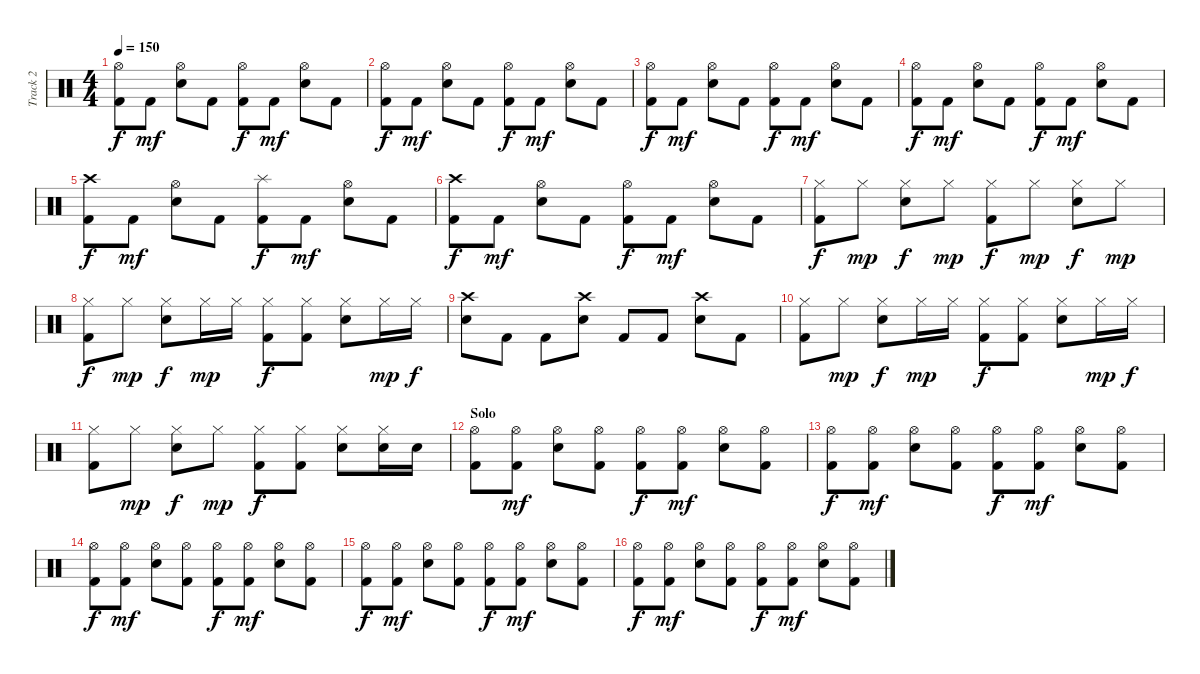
\track ("Track 2" "Track 2") {instrument percussion}
\staff {score}
\articulation defaults
\ts (4 4)
\tempo 150
\clef neutral
\ks c
("Hi-Hat (open)" "Kick (hit) 2").8{dy f} "Kick (hit) 2".8{dy mf} ("Hi-Hat (open)" "Electric Snare (hit)").8 "Kick (hit) 2".8 ("Hi-Hat (open)" "Kick (hit) 2").8{dy f} "Kick (hit) 2".8{dy mf} ("Hi-Hat (open)" "Electric Snare (hit)").8 "Kick (hit) 2".8 |
("Hi-Hat (open)" "Kick (hit) 2").8{dy f} "Kick (hit) 2".8{dy mf} ("Hi-Hat (open)" "Electric Snare (hit)").8 "Kick (hit) 2".8 ("Hi-Hat (open)" "Kick (hit) 2").8{dy f} "Kick (hit) 2".8{dy mf} ("Hi-Hat (open)" "Electric Snare (hit)").8 "Kick (hit) 2".8 |
("Hi-Hat (open)" "Kick (hit) 2").8{dy f} "Kick (hit) 2".8{dy mf} ("Hi-Hat (open)" "Electric Snare (hit)").8 "Kick (hit) 2".8 ("Hi-Hat (open)" "Kick (hit) 2").8{dy f} "Kick (hit) 2".8{dy mf} ("Hi-Hat (open)" "Electric Snare (hit)").8 "Kick (hit) 2".8 |
("Hi-Hat (open)" "Kick (hit) 2").8{dy f} "Kick (hit) 2".8{dy mf} ("Hi-Hat (open)" "Electric Snare (hit)").8 "Kick (hit) 2".8 ("Hi-Hat (open)" "Kick (hit) 2").8{dy f} "Kick (hit) 2".8{dy mf} ("Hi-Hat (open)" "Electric Snare (hit)").8 "Kick (hit) 2".8 |
("Crash high (hit)" "Kick (hit) 2").8{dy f} "Kick (hit) 2".8{dy mf} ("Hi-Hat (open)" "Electric Snare (hit)").8 "Kick (hit) 2".8 ("Splash (hit)" "Kick (hit) 2").8{dy f} "Kick (hit) 2".8{dy mf} ("Hi-Hat (open)" "Electric Snare (hit)").8 "Kick (hit) 2".8 |
("Crash high (hit)" "Kick (hit) 2").8{dy f} "Kick (hit) 2".8{dy mf} ("Hi-Hat (open)" "Electric Snare (hit)").8 "Kick (hit) 2".8 ("Hi-Hat (open)" "Kick (hit) 2").8{dy f} "Kick (hit) 2".8{dy mf} ("Hi-Hat (open)" "Electric Snare (hit)").8 "Kick (hit) 2".8 |
("Hi-Hat (closed)" "Kick (hit) 2").8{dy f} "Hi-Hat (closed)".8{dy mp} ("Hi-Hat (closed)" "Electric Snare (hit)").8{dy f} "Hi-Hat (closed)".8{dy mp} ("Hi-Hat (closed)" "Kick (hit) 2").8{dy f} "Hi-Hat (closed)".8{dy mp} ("Hi-Hat (closed)" "Electric Snare (hit)").8{dy f} "Hi-Hat (closed)".8{dy mp} |
("Hi-Hat (closed)" "Kick (hit) 2").8{dy f} "Hi-Hat (closed)".8{dy mp} ("Hi-Hat (closed)" "Electric Snare (hit)").8{dy f} "Hi-Hat (closed)".16{dy mp} "Hi-Hat (closed)".16 ("Hi-Hat (closed)" "Kick (hit) 2").8{dy f} ("Hi-Hat (closed)" "Kick (hit) 2").8 ("Hi-Hat (closed)" "Electric Snare (hit)").8 "Hi-Hat (closed)".16{dy mp} "Hi-Hat (closed)".16{dy f} |
("Crash high (hit)" "Electric Snare (hit)").8 "Kick (hit) 2".8 "Kick (hit) 2".8 ("Crash high (hit)" "Electric Snare (hit)").8 "Kick (hit) 2".8 "Kick (hit) 2".8 ("Crash high (hit)" "Electric Snare (hit)").8 "Kick (hit) 2".8 |
("Hi-Hat (closed)" "Kick (hit) 2").8 "Hi-Hat (closed)".8{dy mp} ("Hi-Hat (closed)" "Electric Snare (hit)").8{dy f} "Hi-Hat (closed)".16{dy mp} "Hi-Hat (closed)".16 ("Hi-Hat (closed)" "Kick (hit) 2").8{dy f} ("Hi-Hat (closed)" "Kick (hit) 2").8 ("Hi-Hat (closed)" "Electric Snare (hit)").8 "Hi-Hat (closed)".16{dy mp} "Hi-Hat (closed)".16{dy f} |
("Hi-Hat (closed)" "Kick (hit) 2").8 "Hi-Hat (closed)".8{dy mp} ("Hi-Hat (closed)" "Electric Snare (hit)").8{dy f} "Hi-Hat (closed)".8{dy mp} ("Hi-Hat (closed)" "Kick (hit) 2").8{dy f} ("Hi-Hat (closed)" "Kick (hit) 2").8 ("Hi-Hat (closed)" "Electric Snare (hit)").8 ("Hi-Hat (closed)" "Electric Snare (hit)").16 "Electric Snare (hit)".16 |
\section ("" "Solo")
("Hi-Hat (open)" "Kick (hit) 2").8 ("Hi-Hat (open)" "Kick (hit) 2").8{dy mf} ("Hi-Hat (open)" "Electric Snare (hit)").8 ("Hi-Hat (open)" "Kick (hit) 2").8 ("Hi-Hat (open)" "Kick (hit) 2").8{dy f} ("Hi-Hat (open)" "Kick (hit) 2").8{dy mf} ("Hi-Hat (open)" "Electric Snare (hit)").8 ("Hi-Hat (open)" "Kick (hit) 2").8 |
("Hi-Hat (open)" "Kick (hit) 2").8{dy f} ("Hi-Hat (open)" "Kick (hit) 2").8{dy mf} ("Hi-Hat (open)" "Electric Snare (hit)").8 ("Hi-Hat (open)" "Kick (hit) 2").8 ("Hi-Hat (open)" "Kick (hit) 2").8{dy f} ("Hi-Hat (open)" "Kick (hit) 2").8{dy mf} ("Hi-Hat (open)" "Electric Snare (hit)").8 ("Hi-Hat (open)" "Kick (hit) 2").8 |
("Hi-Hat (open)" "Kick (hit) 2").8{dy f} ("Hi-Hat (open)" "Kick (hit) 2").8{dy mf} ("Hi-Hat (open)" "Electric Snare (hit)").8 ("Hi-Hat (open)" "Kick (hit) 2").8 ("Hi-Hat (open)" "Kick (hit) 2").8{dy f} ("Hi-Hat (open)" "Kick (hit) 2").8{dy mf} ("Hi-Hat (open)" "Electric Snare (hit)").8 ("Hi-Hat (open)" "Kick (hit) 2").8 |
("Hi-Hat (open)" "Kick (hit) 2").8{dy f} ("Hi-Hat (open)" "Kick (hit) 2").8{dy mf} ("Hi-Hat (open)" "Electric Snare (hit)").8 ("Hi-Hat (open)" "Kick (hit) 2").8 ("Hi-Hat (open)" "Kick (hit) 2").8{dy f} ("Hi-Hat (open)" "Kick (hit) 2").8{dy mf} ("Hi-Hat (open)" "Electric Snare (hit)").8 ("Hi-Hat (open)" "Kick (hit) 2").8 |
("Hi-Hat (open)" "Kick (hit) 2").8{dy f} ("Hi-Hat (open)" "Kick (hit) 2").8{dy mf} ("Hi-Hat (open)" "Electric Snare (hit)").8 ("Hi-Hat (open)" "Kick (hit) 2").8 ("Hi-Hat (open)" "Kick (hit) 2").8{dy f} ("Hi-Hat (open)" "Kick (hit) 2").8{dy mf} ("Hi-Hat (open)" "Electric Snare (hit)").8 ("Hi-Hat (open)" "Kick (hit) 2").8
